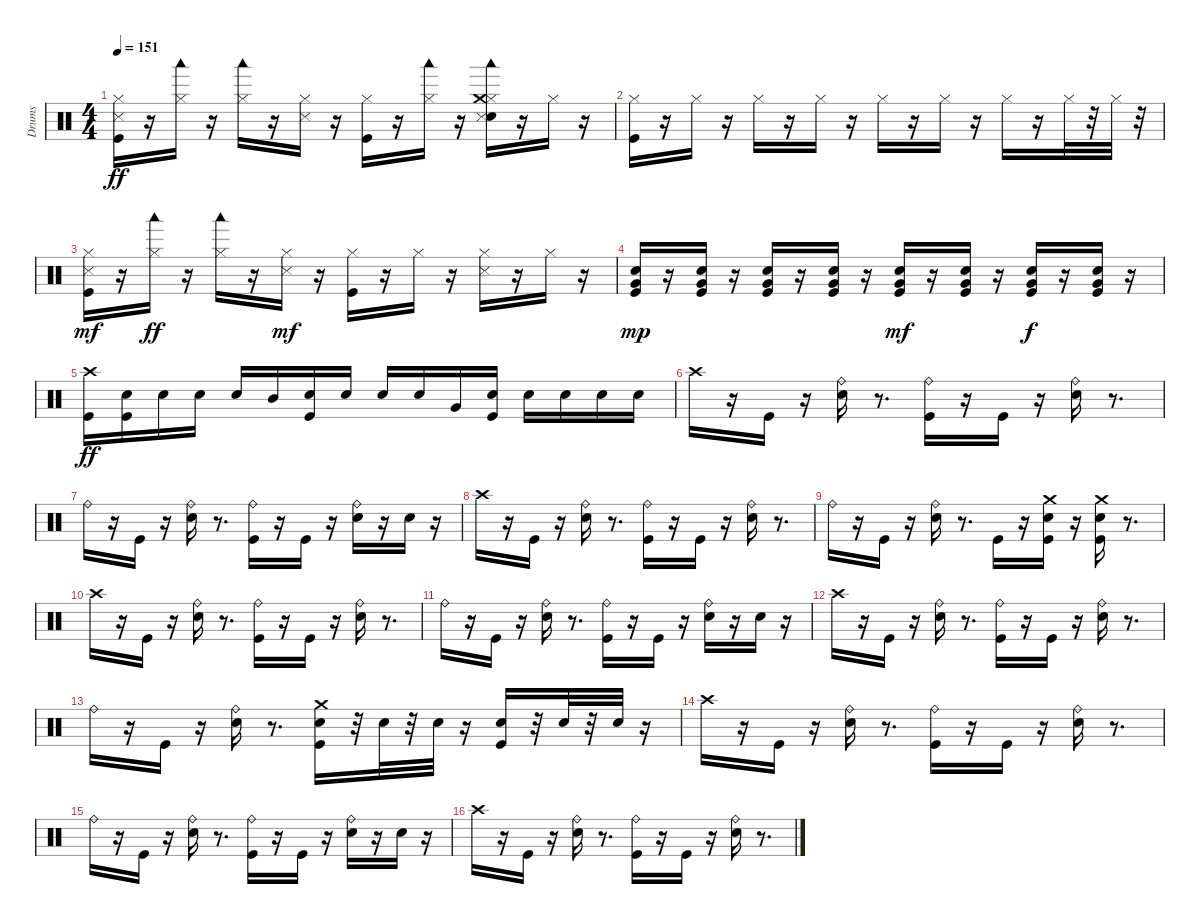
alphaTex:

\track ("Drums" "Drums") {instrument percussion}
\staff {score}
\articulation defaults
\ts (4 4)
\tempo 151
\clef neutral
\ks c
("Kick (hit)" "Snare (side stick) 3" "Hi-Hat (closed)").16{dy ff} r.16 ("Hi-Hat (closed)" "Woodblock low (hit)").16 r.16 ("Hi-Hat (closed)" "Woodblock low (hit)").16 r.16 ("Snare (side stick) 3" "Hi-Hat (closed)").16 r.16 ("Kick (hit)" "Hi-Hat (closed)").16 r.16 ("Hi-Hat (closed)" "Woodblock low (hit)").16 r.16 ("Snare (hit) 2" "Snare (side stick) 3" "Hi-Hat (closed)" "Crash medium (hit)" "Woodblock low (hit)").16 r.16 "Hi-Hat (closed)".16 r.16 |
("Kick (hit)" "Hi-Hat (closed)").16 r.16 "Hi-Hat (closed)".16 r.16 "Hi-Hat (closed)".16 r.16 "Hi-Hat (closed)".16 r.16 "Hi-Hat (closed)".16 r.16 "Hi-Hat (closed)".16 r.16 "Hi-Hat (closed)".16 r.16 "Hi-Hat (closed)".32 r.32 "Hi-Hat (closed)".32 r.32 |
("Kick (hit)" "Snare (side stick) 3" "Hi-Hat (closed)").16{dy mf} r.16 ("Hi-Hat (closed)" "Woodblock low (hit)").16{dy ff} r.16 ("Hi-Hat (closed)" "Woodblock low (hit)").16 r.16 ("Snare (side stick) 3" "Hi-Hat (closed)").16{dy mf} r.16 ("Kick (hit)" "Hi-Hat (closed)").16 r.16 "Hi-Hat (closed)".16 r.16 ("Snare (side stick) 3" "Hi-Hat (closed)").16 r.16 "Hi-Hat (closed)".16 r.16 |
("Kick (hit)" "Snare (hit) 2" "Very Low Tom (hit)").16{dy mp} r.16 ("Kick (hit)" "Snare (hit) 2" "Very Low Tom (hit)").16 r.16 ("Kick (hit)" "Snare (hit) 2" "Very Low Tom (hit)").16 r.16 ("Kick (hit)" "Snare (hit) 2" "Very Low Tom (hit)").16 r.16 ("Kick (hit)" "Snare (hit) 2" "Very Low Tom (hit)").16{dy mf} r.16 ("Kick (hit)" "Snare (hit) 2" "Very Low Tom (hit)").16 r.16 ("Kick (hit)" "Snare (hit) 2" "Very Low Tom (hit)").16{dy f} r.16 ("Kick (hit)" "Snare (hit) 2" "Very Low Tom (hit)").16 r.16 |
("Kick (hit)" "Crash high (hit)").16{dy ff} ("Kick (hit)" "Electric Snare (hit)").16 "Electric Snare (hit)".16 "Electric Snare (hit)".16 "Electric Snare (hit)".16 "Mid Tom (hit)".16 ("Kick (hit)" "Electric Snare (hit)").16 "Electric Snare (hit)".16 "Electric Snare (hit)".16 "Electric Snare (hit)".16 "Very Low Tom (hit)".16 ("Kick (hit)" "Electric Snare (hit)").16 "Electric Snare (hit)".16 "Electric Snare (hit)".16 "Electric Snare (hit)".16 "Electric Snare (hit)".16 |
"Crash high (hit)".16 r.16 "Kick (hit)".16 r.16 ("Snare (hit) 2" "Ride (bell)").16 r.8{d} ("Kick (hit)" "Ride (bell)").16 r.16 "Kick (hit)".16 r.16 ("Snare (hit) 2" "Ride (bell)").16 r.8{d} |
"Ride (bell)".16 r.16 "Kick (hit)".16 r.16 ("Snare (hit) 2" "Ride (bell)").16 r.8{d} ("Kick (hit)" "Ride (bell)").16 r.16 "Kick (hit)".16 r.16 ("Snare (hit) 2" "Ride (bell)").16 r.16 "Snare (hit) 2".16 r.16 |
"Crash high (hit)".16 r.16 "Kick (hit)".16 r.16 ("Snare (hit) 2" "Ride (bell)").16 r.8{d} ("Kick (hit)" "Ride (bell)").16 r.16 "Kick (hit)".16 r.16 ("Snare (hit) 2" "Ride (bell)").16 r.8{d} |
"Ride (bell)".16 r.16 "Kick (hit)".16 r.16 ("Snare (hit) 2" "Ride (bell)").16 r.8{d} "Kick (hit)".16 r.16 ("Kick (hit)" "Snare (hit) 2" "Crash medium (hit)").16 r.16 ("Kick (hit)" "Snare (hit) 2" "Crash medium (hit)").16 r.8{d} |
"Crash high (hit)".16 r.16 "Kick (hit)".16 r.16 ("Snare (hit) 2" "Ride (bell)").16 r.8{d} ("Kick (hit)" "Ride (bell)").16 r.16 "Kick (hit)".16 r.16 ("Snare (hit) 2" "Ride (bell)").16 r.8{d} |
"Ride (bell)".16 r.16 "Kick (hit)".16 r.16 ("Snare (hit) 2" "Ride (bell)").16 r.8{d} ("Kick (hit)" "Ride (bell)").16 r.16 "Kick (hit)".16 r.16 ("Snare (hit) 2" "Ride (bell)").16 r.16 "Snare (hit) 2".16 r.16 |
"Crash high (hit)".16 r.16 "Kick (hit)".16 r.16 ("Snare (hit) 2" "Ride (bell)").16 r.8{d} ("Kick (hit)" "Ride (bell)").16 r.16 "Kick (hit)".16 r.16 ("Snare (hit) 2" "Ride (bell)").16 r.8{d} |
"Ride (bell)".16 r.16 "Kick (hit)".16 r.16 ("Snare (hit) 2" "Ride (bell)").16 r.8{d} ("Kick (hit)" "Snare (hit) 2" "Crash medium (hit)").16 r.32 "Snare (hit) 2".32 r.32 "Snare (hit) 2".32 r.16 ("Kick (hit)" "Snare (hit) 2").16 r.32 "Snare (hit) 2".32 r.32 "Snare (hit) 2".32 r.16 |
"Crash high (hit)".16 r.16 "Kick (hit)".16 r.16 ("Snare (hit) 2" "Ride (bell)").16 r.8{d} ("Kick (hit)" "Ride (bell)").16 r.16 "Kick (hit)".16 r.16 ("Snare (hit) 2" "Ride (bell)").16 r.8{d} |
"Ride (bell)".16 r.16 "Kick (hit)".16 r.16 ("Snare (hit) 2" "Ride (bell)").16 r.8{d} ("Kick (hit)" "Ride (bell)").16 r.16 "Kick (hit)".16 r.16 ("Snare (hit) 2" "Ride (bell)").16 r.16 "Snare (hit) 2".16 r.16 |
"Crash high (hit)".16 r.16 "Kick (hit)".16 r.16 ("Snare (hit) 2" "Ride (bell)").16 r.8{d} ("Kick (hit)" "Ride (bell)").16 r.16 "Kick (hit)".16 r.16 ("Snare (hit) 2" "Ride (bell)").16 r.8{d}
